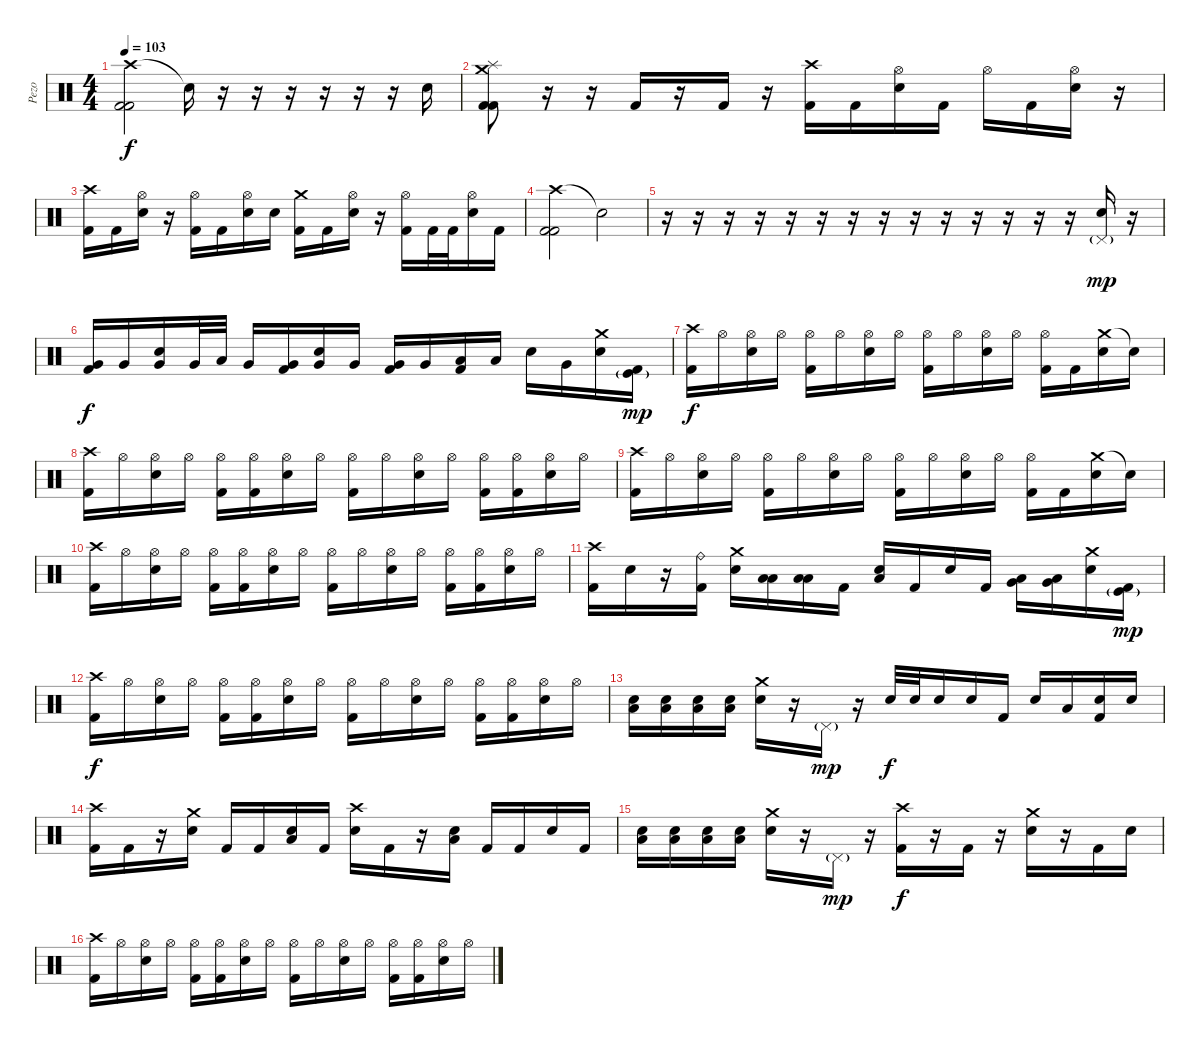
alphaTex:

\track ("Pezo" "Pezo") {instrument percussion}
\staff {score}
\articulation defaults
\ts (4 4)
\tempo 103
\clef neutral
\ks c
("Crash high (hit)" "Kick (hit) 2" "Kick (hit) 2").2{dy f} "Snare (hit)"{t}.16 r.16 r.16 r.16 r.16 r.16 r.16 "Electric Snare (hit)".16 |
("Crash medium (hit)" "Splash (hit)" "Kick (hit) 2" "Kick (hit) 2").8 r.16 r.16 "Kick (hit) 2".16 r.16 "Kick (hit) 2".16 r.16 ("Crash high (hit)" "Kick (hit) 2").16 "Kick (hit) 2".16 ("Hi-Hat (open)" "Electric Snare (hit)").16 "Kick (hit) 2".16 "Hi-Hat (open)".16 "Kick (hit) 2".16 ("Hi-Hat (open)" "Electric Snare (hit)").16 r.16 |
("Crash high (hit)" "Kick (hit) 2").16 "Kick (hit) 2".16 ("Hi-Hat (open)" "Electric Snare (hit)").16 r.16 ("Hi-Hat (open)" "Kick (hit) 2").16 "Kick (hit) 2".16 ("Hi-Hat (open)" "Electric Snare (hit)").16 "Electric Snare (hit)".16 ("Crash medium (hit)" "Kick (hit) 2").16 "Kick (hit) 2".16 ("Hi-Hat (open)" "Electric Snare (hit)").16 r.16 ("Hi-Hat (open)" "Kick (hit) 2").16 "Kick (hit) 2".32 "Kick (hit) 2".32 ("Hi-Hat (open)" "Electric Snare (hit)").16 "Kick (hit) 2".16 |
("Crash high (hit)" "Kick (hit) 2" "Kick (hit) 2").2 "Snare (hit)"{t}.2 |
r.16 r.16 r.16 r.16 r.16 r.16 r.16 r.16 r.16 r.16 r.16 r.16 r.16 r.16 ("Pedal Hi-Hat (hit)"{g} "Electric Snare (hit)").16{dy mp} r.16 |
("Very Low Tom (hit)" "Kick (hit) 2").16{dy f} "Very Low Tom (hit)".16 ("Very Low Tom (hit)" "Electric Snare (hit)").16 "Very Low Tom (hit)".32 "Low Tom (hit)".32 "Very Low Tom (hit)".16 ("Very Low Tom (hit)" "Kick (hit) 2").16 ("Very Low Tom (hit)" "Electric Snare (hit)").16 "Very Low Tom (hit)".16 ("Very Low Tom (hit)" "Kick (hit) 2").16 "Very Low Tom (hit)".16 ("Low Tom (hit)" "Kick (hit) 2").16 "Low Tom (hit)".16 "Electric Snare (hit)".16 "Very Low Tom (hit)".16 ("Crash medium (hit)" "Electric Snare (hit)").16 ("Kick (hit)"{g} "Kick (hit) 2").16{dy mp} |
("Crash high (hit)" "Kick (hit) 2").16{dy f} "Hi-Hat (open)".16 ("Hi-Hat (open)" "Electric Snare (hit)").16 "Hi-Hat (open)".16 ("Hi-Hat (open)" "Kick (hit) 2").16 "Hi-Hat (open)".16 ("Hi-Hat (open)" "Electric Snare (hit)").16 "Hi-Hat (open)".16 ("Hi-Hat (open)" "Kick (hit) 2").16 "Hi-Hat (open)".16 ("Hi-Hat (open)" "Electric Snare (hit)").16 "Hi-Hat (open)".16 ("Hi-Hat (open)" "Kick (hit) 2").16 "Kick (hit) 2".16 ("Crash medium (hit)" "Electric Snare (hit)").16 "Snare (hit)"{t}.16 |
("Crash high (hit)" "Kick (hit) 2").16 "Hi-Hat (open)".16 ("Hi-Hat (open)" "Electric Snare (hit)").16 "Hi-Hat (open)".16 ("Hi-Hat (open)" "Kick (hit) 2").16 ("Hi-Hat (open)" "Kick (hit) 2").16 ("Hi-Hat (open)" "Electric Snare (hit)").16 "Hi-Hat (open)".16 ("Hi-Hat (open)" "Kick (hit) 2").16 "Hi-Hat (open)".16 ("Hi-Hat (open)" "Electric Snare (hit)").16 "Hi-Hat (open)".16 ("Hi-Hat (open)" "Kick (hit) 2").16 ("Hi-Hat (open)" "Kick (hit) 2").16 ("Hi-Hat (open)" "Electric Snare (hit)").16 "Hi-Hat (open)".16 |
("Crash high (hit)" "Kick (hit) 2").16 "Hi-Hat (open)".16 ("Hi-Hat (open)" "Electric Snare (hit)").16 "Hi-Hat (open)".16 ("Hi-Hat (open)" "Kick (hit) 2").16 "Hi-Hat (open)".16 ("Hi-Hat (open)" "Electric Snare (hit)").16 "Hi-Hat (open)".16 ("Hi-Hat (open)" "Kick (hit) 2").16 "Hi-Hat (open)".16 ("Hi-Hat (open)" "Electric Snare (hit)").16 "Hi-Hat (open)".16 ("Hi-Hat (open)" "Kick (hit) 2").16 "Kick (hit) 2".16 ("Crash medium (hit)" "Electric Snare (hit)").16 "Snare (hit)"{t}.16 |
("Crash high (hit)" "Kick (hit) 2").16 "Hi-Hat (open)".16 ("Hi-Hat (open)" "Electric Snare (hit)").16 "Hi-Hat (open)".16 ("Hi-Hat (open)" "Kick (hit) 2").16 ("Hi-Hat (open)" "Kick (hit) 2").16 ("Hi-Hat (open)" "Electric Snare (hit)").16 "Hi-Hat (open)".16 ("Hi-Hat (open)" "Kick (hit) 2").16 "Hi-Hat (open)".16 ("Hi-Hat (open)" "Electric Snare (hit)").16 "Hi-Hat (open)".16 ("Hi-Hat (open)" "Kick (hit) 2").16 ("Hi-Hat (open)" "Kick (hit) 2").16 ("Hi-Hat (open)" "Electric Snare (hit)").16 "Hi-Hat (open)".16 |
("Crash high (hit)" "Kick (hit) 2").16 "Electric Snare (hit)".16 r.16 ("Ride (bell)" "Kick (hit) 2").16 ("Crash medium (hit)" "Electric Snare (hit)").16 ("Low Tom (hit)" "Low Tom (hit)").16 ("Low Tom (hit)" "Low Tom (hit)").16 "Kick (hit) 2".16 ("Low Floor Tom (hit)" "Electric Snare (hit)").16 "Kick (hit) 2".16 "Electric Snare (hit)".16 "Kick (hit) 2".16 ("Low Tom (hit)" "Very Low Tom (hit)").16 ("Low Tom (hit)" "Very Low Tom (hit)").16 ("Crash medium (hit)" "Electric Snare (hit)").16 ("Kick (hit)"{g} "Kick (hit) 2").16{dy mp} |
("Crash high (hit)" "Kick (hit) 2").16{dy f} "Hi-Hat (open)".16 ("Hi-Hat (open)" "Electric Snare (hit)").16 "Hi-Hat (open)".16 ("Hi-Hat (open)" "Kick (hit) 2").16 ("Hi-Hat (open)" "Kick (hit) 2").16 ("Hi-Hat (open)" "Electric Snare (hit)").16 "Hi-Hat (open)".16 ("Hi-Hat (open)" "Kick (hit) 2").16 "Hi-Hat (open)".16 ("Hi-Hat (open)" "Electric Snare (hit)").16 "Hi-Hat (open)".16 ("Hi-Hat (open)" "Kick (hit) 2").16 ("Hi-Hat (open)" "Kick (hit) 2").16 ("Hi-Hat (open)" "Electric Snare (hit)").16 "Hi-Hat (open)".16 |
("Low Floor Tom (hit)" "Electric Snare (hit)").16 ("Low Floor Tom (hit)" "Electric Snare (hit)").16 ("Low Floor Tom (hit)" "Electric Snare (hit)").16 ("Low Floor Tom (hit)" "Electric Snare (hit)").16 ("Crash medium (hit)" "Electric Snare (hit)").16 r.16 "Pedal Hi-Hat (hit)"{g}.16{dy mp} r.16 "Electric Snare (hit)".32{dy f} "Electric Snare (hit)".32 "Electric Snare (hit)".16 "Electric Snare (hit)".16 "Kick (hit) 2".16 "Electric Snare (hit)".16 "Low Tom (hit)".16 ("Electric Snare (hit)" "Kick (hit) 2").16 "Electric Snare (hit)".16 |
("Crash high (hit)" "Kick (hit) 2").16 "Kick (hit) 2".16 r.16 ("Crash medium (hit)" "Electric Snare (hit)").16 "Kick (hit) 2".16 "Kick (hit) 2".16 ("Low Floor Tom (hit)" "Electric Snare (hit)").16 "Kick (hit) 2".16 ("Crash high (hit)" "Electric Snare (hit)").16 "Kick (hit) 2".16 r.16 ("Low Floor Tom (hit)" "Electric Snare (hit)").16 "Kick (hit) 2".16 "Kick (hit) 2".16 "Electric Snare (hit)".16 "Kick (hit) 2".16 |
("Low Floor Tom (hit)" "Electric Snare (hit)").16 ("Low Floor Tom (hit)" "Electric Snare (hit)").16 ("Low Floor Tom (hit)" "Electric Snare (hit)").16 ("Low Floor Tom (hit)" "Electric Snare (hit)").16 ("Crash medium (hit)" "Electric Snare (hit)").16 r.16 "Pedal Hi-Hat (hit)"{g}.16{dy mp} r.16 ("Crash high (hit)" "Kick (hit) 2").16{dy f} r.16 "Kick (hit) 2".16 r.16 ("Crash medium (hit)" "Electric Snare (hit)").16 r.16 "Kick (hit) 2".16 "Electric Snare (hit)".16 |
("Crash high (hit)" "Kick (hit) 2").16 "Hi-Hat (open)".16 ("Hi-Hat (open)" "Electric Snare (hit)").16 "Hi-Hat (open)".16 ("Hi-Hat (open)" "Kick (hit) 2").16 ("Hi-Hat (open)" "Kick (hit) 2").16 ("Hi-Hat (open)" "Electric Snare (hit)").16 "Hi-Hat (open)".16 ("Hi-Hat (open)" "Kick (hit) 2").16 "Hi-Hat (open)".16 ("Hi-Hat (open)" "Electric Snare (hit)").16 "Hi-Hat (open)".16 ("Hi-Hat (open)" "Kick (hit) 2").16 ("Hi-Hat (open)" "Kick (hit) 2").16 ("Hi-Hat (open)" "Electric Snare (hit)").16 "Hi-Hat (open)".16
